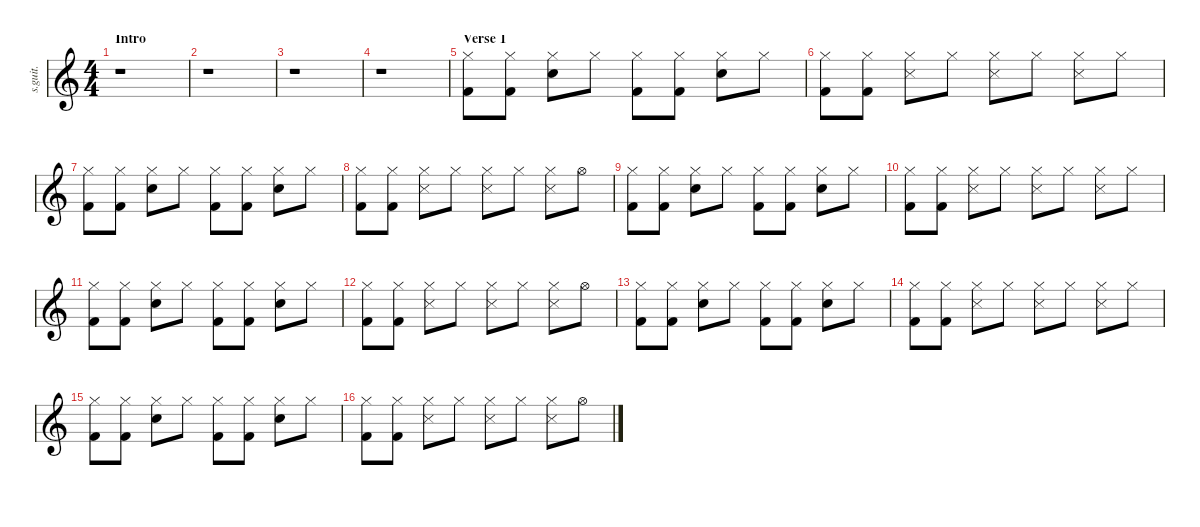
\defaultSystemsLayout 4
\hideDynamics
\bracketExtendMode nobrackets
\track ("Dave Grohl - Drums" "s.guit.") {instrument percussion}
\staff {score}
\articulation defaults
\ts (4 4)
\beaming (8 2 2 2 2)
\section ("" "Intro")
\tempo (100 hide)
\clef g2
\ks c
r.1{dy mf} |
r.1 |
r.1 |
r.1 |
\section ("" "Verse 1")
("Hi-Hat (closed)" "Kick (hit) 2").8{lyrics (0 "") lyrics (1 "") lyrics (2 "") lyrics (3 "") lyrics (4 "")} ("Hi-Hat (closed)" "Kick (hit) 2").8{lyrics (0 "") lyrics (1 "") lyrics (2 "") lyrics (3 "") lyrics (4 "")} ("Hi-Hat (closed)" "Snare (hit) 2").8{lyrics (0 "") lyrics (1 "") lyrics (2 "") lyrics (3 "") lyrics (4 "")} "Hi-Hat (closed)".8{lyrics (0 "") lyrics (1 "") lyrics (2 "") lyrics (3 "") lyrics (4 "")} ("Hi-Hat (closed)" "Kick (hit) 2").8{lyrics (0 "") lyrics (1 "") lyrics (2 "") lyrics (3 "") lyrics (4 "")} ("Hi-Hat (closed)" "Kick (hit) 2").8{lyrics (0 "") lyrics (1 "") lyrics (2 "") lyrics (3 "") lyrics (4 "")} ("Snare (hit) 2" "Hi-Hat (closed)").8{lyrics (0 "") lyrics (1 "") lyrics (2 "") lyrics (3 "") lyrics (4 "")} "Hi-Hat (closed)".8{lyrics (0 "") lyrics (1 "") lyrics (2 "") lyrics (3 "") lyrics (4 "")} |
("Hi-Hat (closed)" "Kick (hit) 2").8{lyrics (0 "") lyrics (1 "") lyrics (2 "") lyrics (3 "") lyrics (4 "")} ("Hi-Hat (closed)" "Kick (hit) 2").8{lyrics (0 "") lyrics (1 "") lyrics (2 "") lyrics (3 "") lyrics (4 "")} ("Hi-Hat (closed)" "Snare (side stick) 3").8{lyrics (0 "") lyrics (1 "") lyrics (2 "") lyrics (3 "") lyrics (4 "")} "Hi-Hat (closed)".8{lyrics (0 "") lyrics (1 "") lyrics (2 "") lyrics (3 "") lyrics (4 "")} ("Hi-Hat (closed)" "Snare (side stick) 3").8{lyrics (0 "") lyrics (1 "") lyrics (2 "") lyrics (3 "") lyrics (4 "")} "Hi-Hat (closed)".8{lyrics (0 "") lyrics (1 "") lyrics (2 "") lyrics (3 "") lyrics (4 "")} ("Hi-Hat (closed)" "Snare (side stick) 3").8{lyrics (0 "") lyrics (1 "") lyrics (2 "") lyrics (3 "") lyrics (4 "")} "Hi-Hat (closed)".8{lyrics (0 "") lyrics (1 "") lyrics (2 "") lyrics (3 "") lyrics (4 "")} |
("Hi-Hat (closed)" "Kick (hit) 2").8{lyrics (0 "") lyrics (1 "") lyrics (2 "") lyrics (3 "") lyrics (4 "")} ("Hi-Hat (closed)" "Kick (hit) 2").8{lyrics (0 "") lyrics (1 "") lyrics (2 "") lyrics (3 "") lyrics (4 "")} ("Hi-Hat (closed)" "Snare (hit) 2").8{lyrics (0 "") lyrics (1 "") lyrics (2 "") lyrics (3 "") lyrics (4 "")} "Hi-Hat (closed)".8{lyrics (0 "") lyrics (1 "") lyrics (2 "") lyrics (3 "") lyrics (4 "")} ("Hi-Hat (closed)" "Kick (hit) 2").8{lyrics (0 "") lyrics (1 "") lyrics (2 "") lyrics (3 "") lyrics (4 "")} ("Hi-Hat (closed)" "Kick (hit) 2").8{lyrics (0 "") lyrics (1 "") lyrics (2 "") lyrics (3 "") lyrics (4 "")} ("Snare (hit) 2" "Hi-Hat (closed)").8{lyrics (0 "") lyrics (1 "") lyrics (2 "") lyrics (3 "") lyrics (4 "")} "Hi-Hat (closed)".8{lyrics (0 "") lyrics (1 "") lyrics (2 "") lyrics (3 "") lyrics (4 "")} |
("Hi-Hat (closed)" "Kick (hit) 2").8{lyrics (0 "") lyrics (1 "") lyrics (2 "") lyrics (3 "") lyrics (4 "")} ("Hi-Hat (closed)" "Kick (hit) 2").8{lyrics (0 "") lyrics (1 "") lyrics (2 "") lyrics (3 "") lyrics (4 "")} ("Hi-Hat (closed)" "Snare (side stick) 3").8{lyrics (0 "") lyrics (1 "") lyrics (2 "") lyrics (3 "") lyrics (4 "")} "Hi-Hat (closed)".8{lyrics (0 "") lyrics (1 "") lyrics (2 "") lyrics (3 "") lyrics (4 "")} ("Hi-Hat (closed)" "Snare (side stick) 3").8{lyrics (0 "") lyrics (1 "") lyrics (2 "") lyrics (3 "") lyrics (4 "")} "Hi-Hat (closed)".8{lyrics (0 "") lyrics (1 "") lyrics (2 "") lyrics (3 "") lyrics (4 "")} ("Hi-Hat (closed)" "Snare (side stick) 3").8{lyrics (0 "") lyrics (1 "") lyrics (2 "") lyrics (3 "") lyrics (4 "")} "Hi-Hat (open)".8{lyrics (0 "") lyrics (1 "") lyrics (2 "") lyrics (3 "") lyrics (4 "")} |
("Hi-Hat (closed)" "Kick (hit) 2").8{lyrics (0 "") lyrics (1 "") lyrics (2 "") lyrics (3 "") lyrics (4 "")} ("Hi-Hat (closed)" "Kick (hit) 2").8{lyrics (0 "") lyrics (1 "") lyrics (2 "") lyrics (3 "") lyrics (4 "")} ("Hi-Hat (closed)" "Snare (hit) 2").8{lyrics (0 "") lyrics (1 "") lyrics (2 "") lyrics (3 "") lyrics (4 "")} "Hi-Hat (closed)".8{lyrics (0 "") lyrics (1 "") lyrics (2 "") lyrics (3 "") lyrics (4 "")} ("Hi-Hat (closed)" "Kick (hit) 2").8{lyrics (0 "") lyrics (1 "") lyrics (2 "") lyrics (3 "") lyrics (4 "")} ("Hi-Hat (closed)" "Kick (hit) 2").8{lyrics (0 "") lyrics (1 "") lyrics (2 "") lyrics (3 "") lyrics (4 "")} ("Snare (hit) 2" "Hi-Hat (closed)").8{lyrics (0 "") lyrics (1 "") lyrics (2 "") lyrics (3 "") lyrics (4 "")} "Hi-Hat (closed)".8{lyrics (0 "") lyrics (1 "") lyrics (2 "") lyrics (3 "") lyrics (4 "")} |
("Hi-Hat (closed)" "Kick (hit) 2").8{lyrics (0 "") lyrics (1 "") lyrics (2 "") lyrics (3 "") lyrics (4 "")} ("Hi-Hat (closed)" "Kick (hit) 2").8{lyrics (0 "") lyrics (1 "") lyrics (2 "") lyrics (3 "") lyrics (4 "")} ("Hi-Hat (closed)" "Snare (side stick) 3").8{lyrics (0 "") lyrics (1 "") lyrics (2 "") lyrics (3 "") lyrics (4 "")} "Hi-Hat (closed)".8{lyrics (0 "") lyrics (1 "") lyrics (2 "") lyrics (3 "") lyrics (4 "")} ("Hi-Hat (closed)" "Snare (side stick) 3").8{lyrics (0 "") lyrics (1 "") lyrics (2 "") lyrics (3 "") lyrics (4 "")} "Hi-Hat (closed)".8{lyrics (0 "") lyrics (1 "") lyrics (2 "") lyrics (3 "") lyrics (4 "")} ("Hi-Hat (closed)" "Snare (side stick) 3").8{lyrics (0 "") lyrics (1 "") lyrics (2 "") lyrics (3 "") lyrics (4 "")} "Hi-Hat (closed)".8{lyrics (0 "") lyrics (1 "") lyrics (2 "") lyrics (3 "") lyrics (4 "")} |
("Hi-Hat (closed)" "Kick (hit) 2").8{lyrics (0 "") lyrics (1 "") lyrics (2 "") lyrics (3 "") lyrics (4 "")} ("Hi-Hat (closed)" "Kick (hit) 2").8{lyrics (0 "") lyrics (1 "") lyrics (2 "") lyrics (3 "") lyrics (4 "")} ("Hi-Hat (closed)" "Snare (hit) 2").8{lyrics (0 "") lyrics (1 "") lyrics (2 "") lyrics (3 "") lyrics (4 "")} "Hi-Hat (closed)".8{lyrics (0 "") lyrics (1 "") lyrics (2 "") lyrics (3 "") lyrics (4 "")} ("Hi-Hat (closed)" "Kick (hit) 2").8{lyrics (0 "") lyrics (1 "") lyrics (2 "") lyrics (3 "") lyrics (4 "")} ("Hi-Hat (closed)" "Kick (hit) 2").8{lyrics (0 "") lyrics (1 "") lyrics (2 "") lyrics (3 "") lyrics (4 "")} ("Snare (hit) 2" "Hi-Hat (closed)").8{lyrics (0 "") lyrics (1 "") lyrics (2 "") lyrics (3 "") lyrics (4 "")} "Hi-Hat (closed)".8{lyrics (0 "") lyrics (1 "") lyrics (2 "") lyrics (3 "") lyrics (4 "")} |
("Hi-Hat (closed)" "Kick (hit) 2").8{lyrics (0 "") lyrics (1 "") lyrics (2 "") lyrics (3 "") lyrics (4 "")} ("Hi-Hat (closed)" "Kick (hit) 2").8{lyrics (0 "") lyrics (1 "") lyrics (2 "") lyrics (3 "") lyrics (4 "")} ("Hi-Hat (closed)" "Snare (side stick) 3").8{lyrics (0 "") lyrics (1 "") lyrics (2 "") lyrics (3 "") lyrics (4 "")} "Hi-Hat (closed)".8{lyrics (0 "") lyrics (1 "") lyrics (2 "") lyrics (3 "") lyrics (4 "")} ("Hi-Hat (closed)" "Snare (side stick) 3").8{lyrics (0 "") lyrics (1 "") lyrics (2 "") lyrics (3 "") lyrics (4 "")} "Hi-Hat (closed)".8{lyrics (0 "") lyrics (1 "") lyrics (2 "") lyrics (3 "") lyrics (4 "")} ("Hi-Hat (closed)" "Snare (side stick) 3").8{lyrics (0 "") lyrics (1 "") lyrics (2 "") lyrics (3 "") lyrics (4 "")} "Hi-Hat (open)".8{lyrics (0 "") lyrics (1 "") lyrics (2 "") lyrics (3 "") lyrics (4 "")} |
("Hi-Hat (closed)" "Kick (hit) 2").8{lyrics (0 "") lyrics (1 "") lyrics (2 "") lyrics (3 "") lyrics (4 "")} ("Hi-Hat (closed)" "Kick (hit) 2").8{lyrics (0 "") lyrics (1 "") lyrics (2 "") lyrics (3 "") lyrics (4 "")} ("Hi-Hat (closed)" "Snare (hit) 2").8{lyrics (0 "") lyrics (1 "") lyrics (2 "") lyrics (3 "") lyrics (4 "")} "Hi-Hat (closed)".8{lyrics (0 "") lyrics (1 "") lyrics (2 "") lyrics (3 "") lyrics (4 "")} ("Hi-Hat (closed)" "Kick (hit) 2").8{lyrics (0 "") lyrics (1 "") lyrics (2 "") lyrics (3 "") lyrics (4 "")} ("Hi-Hat (closed)" "Kick (hit) 2").8{lyrics (0 "") lyrics (1 "") lyrics (2 "") lyrics (3 "") lyrics (4 "")} ("Snare (hit) 2" "Hi-Hat (closed)").8{lyrics (0 "") lyrics (1 "") lyrics (2 "") lyrics (3 "") lyrics (4 "")} "Hi-Hat (closed)".8{lyrics (0 "") lyrics (1 "") lyrics (2 "") lyrics (3 "") lyrics (4 "")} |
("Hi-Hat (closed)" "Kick (hit) 2").8{lyrics (0 "") lyrics (1 "") lyrics (2 "") lyrics (3 "") lyrics (4 "")} ("Hi-Hat (closed)" "Kick (hit) 2").8{lyrics (0 "") lyrics (1 "") lyrics (2 "") lyrics (3 "") lyrics (4 "")} ("Hi-Hat (closed)" "Snare (side stick) 3").8{lyrics (0 "") lyrics (1 "") lyrics (2 "") lyrics (3 "") lyrics (4 "")} "Hi-Hat (closed)".8{lyrics (0 "") lyrics (1 "") lyrics (2 "") lyrics (3 "") lyrics (4 "")} ("Hi-Hat (closed)" "Snare (side stick) 3").8{lyrics (0 "") lyrics (1 "") lyrics (2 "") lyrics (3 "") lyrics (4 "")} "Hi-Hat (closed)".8{lyrics (0 "") lyrics (1 "") lyrics (2 "") lyrics (3 "") lyrics (4 "")} ("Hi-Hat (closed)" "Snare (side stick) 3").8{lyrics (0 "") lyrics (1 "") lyrics (2 "") lyrics (3 "") lyrics (4 "")} "Hi-Hat (closed)".8{lyrics (0 "") lyrics (1 "") lyrics (2 "") lyrics (3 "") lyrics (4 "")} |
("Hi-Hat (closed)" "Kick (hit) 2").8{lyrics (0 "") lyrics (1 "") lyrics (2 "") lyrics (3 "") lyrics (4 "")} ("Hi-Hat (closed)" "Kick (hit) 2").8{lyrics (0 "") lyrics (1 "") lyrics (2 "") lyrics (3 "") lyrics (4 "")} ("Hi-Hat (closed)" "Snare (hit) 2").8{lyrics (0 "") lyrics (1 "") lyrics (2 "") lyrics (3 "") lyrics (4 "")} "Hi-Hat (closed)".8{lyrics (0 "") lyrics (1 "") lyrics (2 "") lyrics (3 "") lyrics (4 "")} ("Hi-Hat (closed)" "Kick (hit) 2").8{lyrics (0 "") lyrics (1 "") lyrics (2 "") lyrics (3 "") lyrics (4 "")} ("Hi-Hat (closed)" "Kick (hit) 2").8{lyrics (0 "") lyrics (1 "") lyrics (2 "") lyrics (3 "") lyrics (4 "")} ("Snare (hit) 2" "Hi-Hat (closed)").8{lyrics (0 "") lyrics (1 "") lyrics (2 "") lyrics (3 "") lyrics (4 "")} "Hi-Hat (closed)".8{lyrics (0 "") lyrics (1 "") lyrics (2 "") lyrics (3 "") lyrics (4 "")} |
("Hi-Hat (closed)" "Kick (hit) 2").8{lyrics (0 "") lyrics (1 "") lyrics (2 "") lyrics (3 "") lyrics (4 "")} ("Hi-Hat (closed)" "Kick (hit) 2").8{lyrics (0 "") lyrics (1 "") lyrics (2 "") lyrics (3 "") lyrics (4 "")} ("Hi-Hat (closed)" "Snare (side stick) 3").8{lyrics (0 "") lyrics (1 "") lyrics (2 "") lyrics (3 "") lyrics (4 "")} "Hi-Hat (closed)".8{lyrics (0 "") lyrics (1 "") lyrics (2 "") lyrics (3 "") lyrics (4 "")} ("Hi-Hat (closed)" "Snare (side stick) 3").8{lyrics (0 "") lyrics (1 "") lyrics (2 "") lyrics (3 "") lyrics (4 "")} "Hi-Hat (closed)".8{lyrics (0 "") lyrics (1 "") lyrics (2 "") lyrics (3 "") lyrics (4 "")} ("Hi-Hat (closed)" "Snare (side stick) 3").8{lyrics (0 "") lyrics (1 "") lyrics (2 "") lyrics (3 "") lyrics (4 "")} "Hi-Hat (open)".8{lyrics (0 "") lyrics (1 "") lyrics (2 "") lyrics (3 "") lyrics (4 "")}
